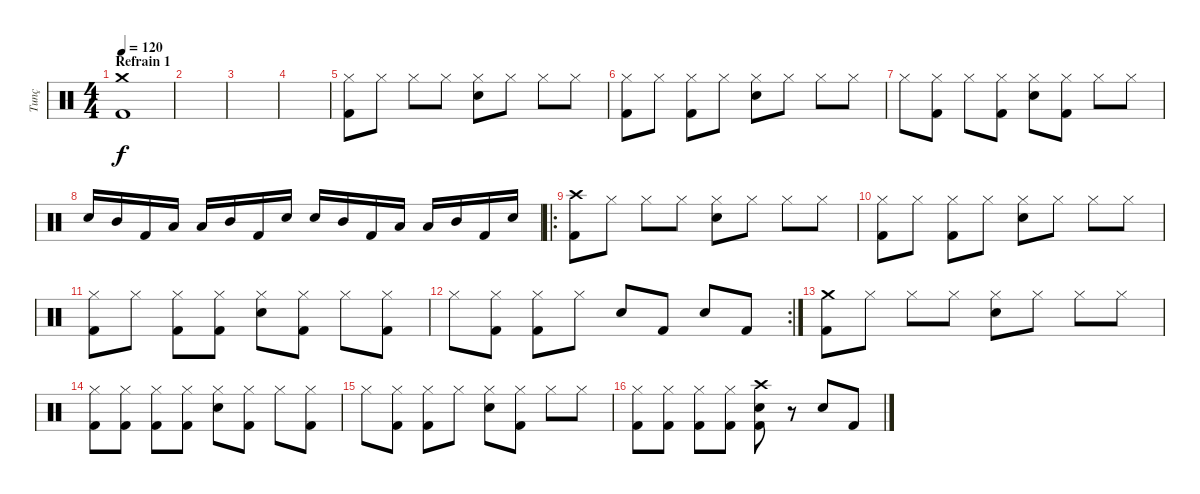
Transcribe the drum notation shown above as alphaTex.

\track ("Tunç" "Tunç") {instrument percussion}
\staff {score}
\articulation defaults
\ts (4 4)
\section ("" "Refrain 1")
\tempo 120
\clef neutral
\ks c
("Kick (hit) 2" "Crash medium (hit)").1{dy f} |
|
|
|
("Kick (hit) 2" "Hi-Hat (closed)").8 "Hi-Hat (closed)".8 "Hi-Hat (closed)".8 "Hi-Hat (closed)".8 ("Snare (hit) 2" "Hi-Hat (closed)").8 "Hi-Hat (closed)".8 "Hi-Hat (closed)".8 "Hi-Hat (closed)".8 |
("Kick (hit) 2" "Hi-Hat (closed)").8 "Hi-Hat (closed)".8 ("Kick (hit) 2" "Hi-Hat (closed)").8 "Hi-Hat (closed)".8 ("Snare (hit) 2" "Hi-Hat (closed)").8 "Hi-Hat (closed)".8 "Hi-Hat (closed)".8 "Hi-Hat (closed)".8 |
"Hi-Hat (closed)".8 ("Kick (hit) 2" "Hi-Hat (closed)").8 "Hi-Hat (closed)".8 ("Kick (hit) 2" "Hi-Hat (closed)").8 ("Snare (hit) 2" "Hi-Hat (closed)").8 ("Kick (hit) 2" "Hi-Hat (closed)").8 "Hi-Hat (closed)".8 "Hi-Hat (closed)".8 |
"Snare (hit) 2".16 "Mid Tom (hit)".16 "Kick (hit) 2".16 "Low Tom (hit)".16 "Low Tom (hit)".16 "Mid Tom (hit)".16 "Kick (hit) 2".16 "Snare (hit) 2".16 "Snare (hit) 2".16 "Mid Tom (hit)".16 "Kick (hit) 2".16 "Low Tom (hit)".16 "Low Tom (hit)".16 "Mid Tom (hit)".16 "Kick (hit) 2".16 "Snare (hit) 2".16 |
\ro
("Kick (hit) 2" "Crash high (hit)").8 "Hi-Hat (closed)".8 "Hi-Hat (closed)".8 "Hi-Hat (closed)".8 ("Snare (hit) 2" "Hi-Hat (closed)").8 "Hi-Hat (closed)".8 "Hi-Hat (closed)".8 "Hi-Hat (closed)".8 |
("Kick (hit) 2" "Hi-Hat (closed)").8 "Hi-Hat (closed)".8 ("Kick (hit) 2" "Hi-Hat (closed)").8 "Hi-Hat (closed)".8 ("Snare (hit) 2" "Hi-Hat (closed)").8 "Hi-Hat (closed)".8 "Hi-Hat (closed)".8 "Hi-Hat (closed)".8 |
("Kick (hit) 2" "Hi-Hat (closed)").8 "Hi-Hat (closed)".8 ("Kick (hit) 2" "Hi-Hat (closed)").8 ("Kick (hit) 2" "Hi-Hat (closed)").8 ("Snare (hit) 2" "Hi-Hat (closed)").8 ("Kick (hit) 2" "Hi-Hat (closed)").8 "Hi-Hat (closed)".8 ("Kick (hit) 2" "Hi-Hat (closed)").8 |
\rc 2 "Hi-Hat (closed)".8
("Kick (hit) 2" "Hi-Hat (closed)").8 ("Kick (hit) 2" "Hi-Hat (closed)").8 "Hi-Hat (closed)".8 "Snare (hit) 2".8 "Kick (hit) 2".8 "Snare (hit) 2".8 "Kick (hit) 2".8 |
("Kick (hit) 2" "Crash medium (hit)").8 "Hi-Hat (closed)".8 "Hi-Hat (closed)".8 "Hi-Hat (closed)".8 ("Snare (hit) 2" "Hi-Hat (closed)").8 "Hi-Hat (closed)".8 "Hi-Hat (closed)".8 "Hi-Hat (closed)".8 |
("Kick (hit) 2" "Hi-Hat (closed)").8 ("Kick (hit) 2" "Hi-Hat (closed)").8 ("Kick (hit) 2" "Hi-Hat (closed)").8 ("Kick (hit) 2" "Hi-Hat (closed)").8 ("Snare (hit) 2" "Hi-Hat (closed)").8 ("Kick (hit) 2" "Hi-Hat (closed)").8 "Hi-Hat (closed)".8 ("Kick (hit) 2" "Hi-Hat (closed)").8 |
"Hi-Hat (closed)".8 ("Kick (hit) 2" "Hi-Hat (closed)").8 ("Kick (hit) 2" "Hi-Hat (closed)").8 "Hi-Hat (closed)".8 ("Snare (hit) 2" "Hi-Hat (closed)").8 ("Kick (hit) 2" "Hi-Hat (closed)").8 "Hi-Hat (closed)".8 "Hi-Hat (closed)".8 |
("Kick (hit) 2" "Hi-Hat (closed)").8 ("Kick (hit) 2" "Hi-Hat (closed)").8 ("Kick (hit) 2" "Hi-Hat (closed)").8 ("Kick (hit) 2" "Hi-Hat (closed)").8 ("Snare (hit) 2" "Kick (hit) 2" "Crash high (hit)").8 r.8 "Snare (hit) 2".8 "Kick (hit) 2".8
